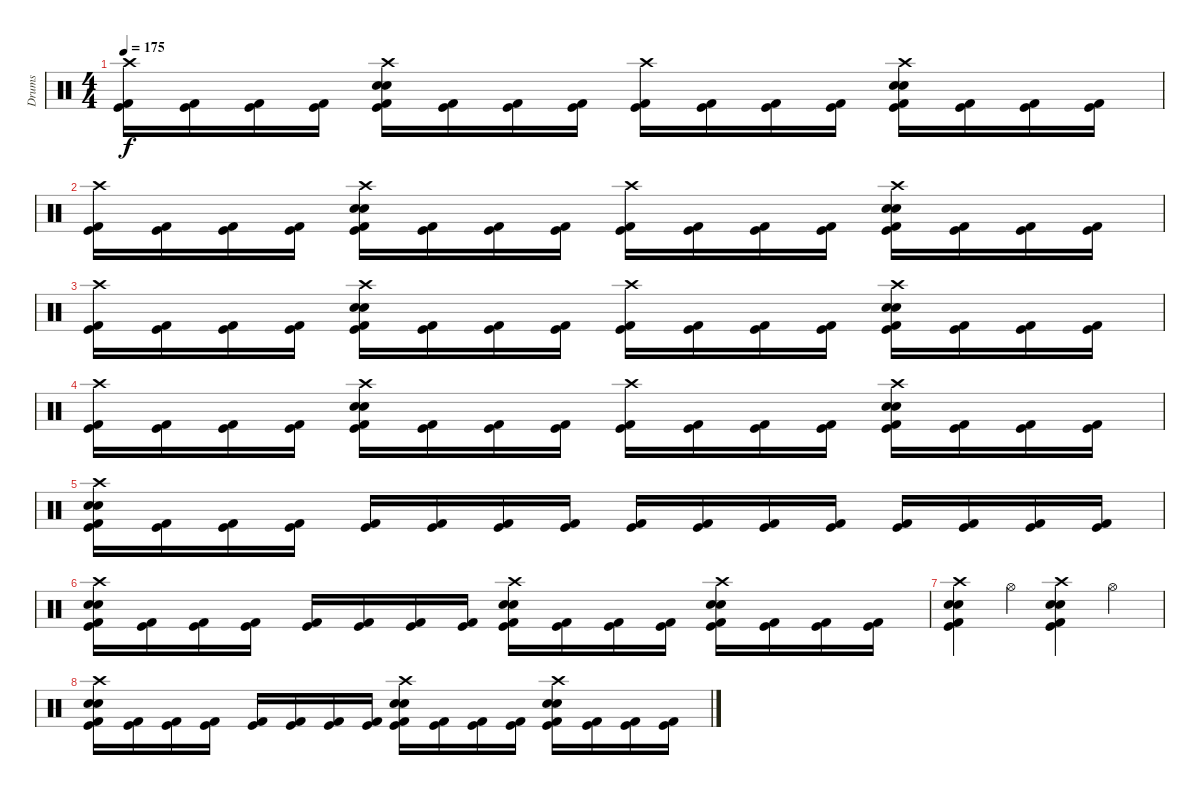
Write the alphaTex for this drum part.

\track ("Drums" "Drums") {instrument percussion}
\staff {score}
\articulation defaults
\ts (4 4)
\tempo 175
\clef neutral
\ks c
("Crash high (hit)" "Kick (hit)" "Kick (hit) 2").16{dy f} ("Kick (hit)" "Kick (hit) 2").16 ("Kick (hit)" "Kick (hit) 2").16 ("Kick (hit)" "Kick (hit) 2").16 ("Crash high (hit)" "Electric Snare (hit)" "Electric Snare (hit)" "Kick (hit)" "Kick (hit) 2").16 ("Kick (hit)" "Kick (hit) 2").16 ("Kick (hit)" "Kick (hit) 2").16 ("Kick (hit)" "Kick (hit) 2").16 ("Crash high (hit)" "Kick (hit)" "Kick (hit) 2").16 ("Kick (hit)" "Kick (hit) 2").16 ("Kick (hit)" "Kick (hit) 2").16 ("Kick (hit)" "Kick (hit) 2").16 ("Crash high (hit)" "Electric Snare (hit)" "Electric Snare (hit)" "Kick (hit)" "Kick (hit) 2").16 ("Kick (hit)" "Kick (hit) 2").16 ("Kick (hit)" "Kick (hit) 2").16 ("Kick (hit)" "Kick (hit) 2").16 |
("Crash high (hit)" "Kick (hit)" "Kick (hit) 2").16 ("Kick (hit)" "Kick (hit) 2").16 ("Kick (hit)" "Kick (hit) 2").16 ("Kick (hit)" "Kick (hit) 2").16 ("Crash high (hit)" "Electric Snare (hit)" "Electric Snare (hit)" "Kick (hit)" "Kick (hit) 2").16 ("Kick (hit)" "Kick (hit) 2").16 ("Kick (hit)" "Kick (hit) 2").16 ("Kick (hit)" "Kick (hit) 2").16 ("Crash high (hit)" "Kick (hit)" "Kick (hit) 2").16 ("Kick (hit)" "Kick (hit) 2").16 ("Kick (hit)" "Kick (hit) 2").16 ("Kick (hit)" "Kick (hit) 2").16 ("Crash high (hit)" "Electric Snare (hit)" "Electric Snare (hit)" "Kick (hit)" "Kick (hit) 2").16 ("Kick (hit)" "Kick (hit) 2").16 ("Kick (hit)" "Kick (hit) 2").16 ("Kick (hit)" "Kick (hit) 2").16 |
("Crash high (hit)" "Kick (hit)" "Kick (hit) 2").16 ("Kick (hit)" "Kick (hit) 2").16 ("Kick (hit)" "Kick (hit) 2").16 ("Kick (hit)" "Kick (hit) 2").16 ("Crash high (hit)" "Electric Snare (hit)" "Electric Snare (hit)" "Kick (hit)" "Kick (hit) 2").16 ("Kick (hit)" "Kick (hit) 2").16 ("Kick (hit)" "Kick (hit) 2").16 ("Kick (hit)" "Kick (hit) 2").16 ("Crash high (hit)" "Kick (hit)" "Kick (hit) 2").16 ("Kick (hit)" "Kick (hit) 2").16 ("Kick (hit)" "Kick (hit) 2").16 ("Kick (hit)" "Kick (hit) 2").16 ("Crash high (hit)" "Electric Snare (hit)" "Electric Snare (hit)" "Kick (hit)" "Kick (hit) 2").16 ("Kick (hit)" "Kick (hit) 2").16 ("Kick (hit)" "Kick (hit) 2").16 ("Kick (hit)" "Kick (hit) 2").16 |
("Crash high (hit)" "Kick (hit)" "Kick (hit) 2").16 ("Kick (hit)" "Kick (hit) 2").16 ("Kick (hit)" "Kick (hit) 2").16 ("Kick (hit)" "Kick (hit) 2").16 ("Crash high (hit)" "Electric Snare (hit)" "Electric Snare (hit)" "Kick (hit)" "Kick (hit) 2").16 ("Kick (hit)" "Kick (hit) 2").16 ("Kick (hit)" "Kick (hit) 2").16 ("Kick (hit)" "Kick (hit) 2").16 ("Crash high (hit)" "Kick (hit)" "Kick (hit) 2").16 ("Kick (hit)" "Kick (hit) 2").16 ("Kick (hit)" "Kick (hit) 2").16 ("Kick (hit)" "Kick (hit) 2").16 ("Crash high (hit)" "Electric Snare (hit)" "Electric Snare (hit)" "Kick (hit)" "Kick (hit) 2").16 ("Kick (hit)" "Kick (hit) 2").16 ("Kick (hit)" "Kick (hit) 2").16 ("Kick (hit)" "Kick (hit) 2").16 |
("Crash high (hit)" "Electric Snare (hit)" "Electric Snare (hit)" "Kick (hit)" "Kick (hit) 2").16 ("Kick (hit)" "Kick (hit) 2").16 ("Kick (hit)" "Kick (hit) 2").16 ("Kick (hit)" "Kick (hit) 2").16 ("Kick (hit)" "Kick (hit) 2").16 ("Kick (hit)" "Kick (hit) 2").16 ("Kick (hit)" "Kick (hit) 2").16 ("Kick (hit)" "Kick (hit) 2").16 ("Kick (hit)" "Kick (hit) 2").16 ("Kick (hit)" "Kick (hit) 2").16 ("Kick (hit)" "Kick (hit) 2").16 ("Kick (hit)" "Kick (hit) 2").16 ("Kick (hit)" "Kick (hit) 2").16 ("Kick (hit)" "Kick (hit) 2").16 ("Kick (hit)" "Kick (hit) 2").16 ("Kick (hit)" "Kick (hit) 2").16 |
("Crash high (hit)" "Electric Snare (hit)" "Electric Snare (hit)" "Kick (hit)" "Kick (hit) 2").16 ("Kick (hit)" "Kick (hit) 2").16 ("Kick (hit)" "Kick (hit) 2").16 ("Kick (hit)" "Kick (hit) 2").16 ("Kick (hit)" "Kick (hit) 2").16 ("Kick (hit)" "Kick (hit) 2").16 ("Kick (hit)" "Kick (hit) 2").16 ("Kick (hit)" "Kick (hit) 2").16 ("Crash high (hit)" "Electric Snare (hit)" "Electric Snare (hit)" "Kick (hit)" "Kick (hit) 2").16 ("Kick (hit)" "Kick (hit) 2").16 ("Kick (hit)" "Kick (hit) 2").16 ("Kick (hit)" "Kick (hit) 2").16 ("Crash high (hit)" "Electric Snare (hit)" "Electric Snare (hit)" "Kick (hit)" "Kick (hit) 2").16 ("Kick (hit)" "Kick (hit) 2").16 ("Kick (hit)" "Kick (hit) 2").16 ("Kick (hit)" "Kick (hit) 2").16 |
("Crash high (hit)" "Electric Snare (hit)" "Electric Snare (hit)" "Kick (hit)" "Kick (hit) 2").4 "Hi-Hat (open)".4 ("Crash high (hit)" "Electric Snare (hit)" "Electric Snare (hit)" "Kick (hit) 2" "Kick (hit)").4 "Hi-Hat (open)".4 |
("Crash high (hit)" "Electric Snare (hit)" "Electric Snare (hit)" "Kick (hit)" "Kick (hit) 2").16 ("Kick (hit)" "Kick (hit) 2").16 ("Kick (hit)" "Kick (hit) 2").16 ("Kick (hit)" "Kick (hit) 2").16 ("Kick (hit)" "Kick (hit) 2").16 ("Kick (hit)" "Kick (hit) 2").16 ("Kick (hit)" "Kick (hit) 2").16 ("Kick (hit)" "Kick (hit) 2").16 ("Crash high (hit)" "Electric Snare (hit)" "Electric Snare (hit)" "Kick (hit)" "Kick (hit) 2").16 ("Kick (hit)" "Kick (hit) 2").16 ("Kick (hit)" "Kick (hit) 2").16 ("Kick (hit)" "Kick (hit) 2").16 ("Crash high (hit)" "Electric Snare (hit)" "Electric Snare (hit)" "Kick (hit)" "Kick (hit) 2").16 ("Kick (hit)" "Kick (hit) 2").16 ("Kick (hit)" "Kick (hit) 2").16 ("Kick (hit)" "Kick (hit) 2").16
